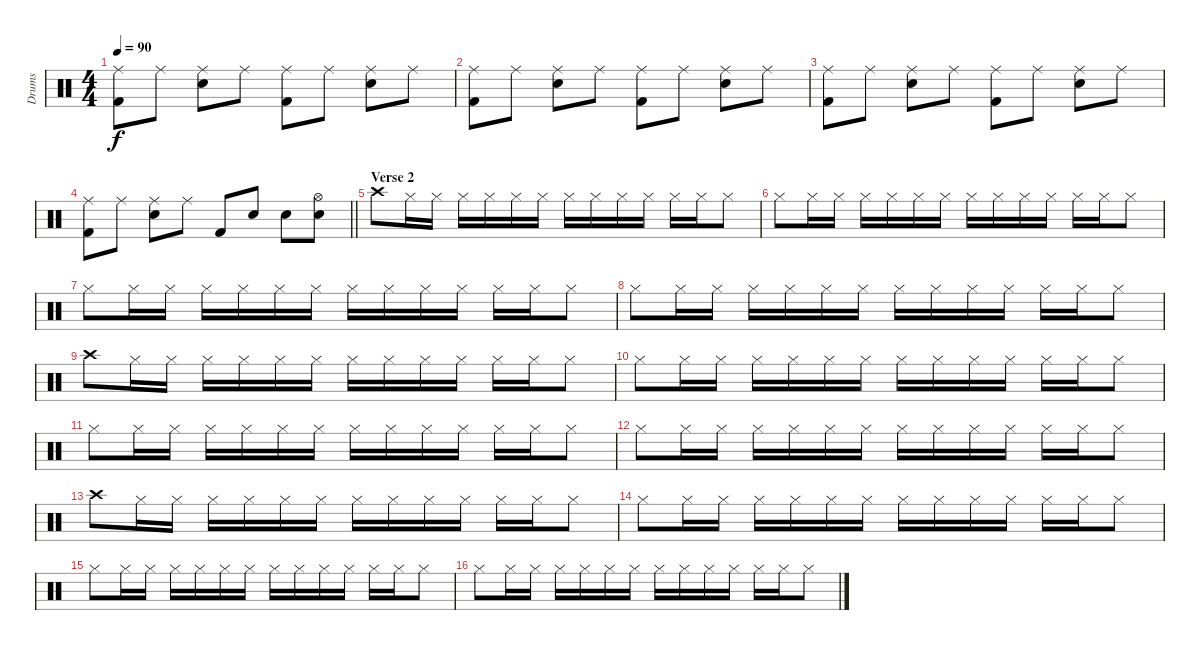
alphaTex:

\track ("Drums" "Drums") {instrument percussion}
\staff {score}
\articulation defaults
\ts (4 4)
\tempo 90
\clef neutral
\ks c
("Ride (middle)" "Kick (hit) 2").8{dy f} "Ride (middle)".8 ("Ride (middle)" "Snare (hit) 2").8 "Ride (middle)".8 ("Ride (middle)" "Kick (hit) 2").8 "Ride (middle)".8 ("Ride (middle)" "Snare (hit) 2").8 "Ride (middle)".8 |
("Ride (middle)" "Kick (hit) 2").8 "Ride (middle)".8 ("Ride (middle)" "Snare (hit) 2").8 "Ride (middle)".8 ("Ride (middle)" "Kick (hit) 2").8 "Ride (middle)".8 ("Ride (middle)" "Snare (hit) 2").8 "Ride (middle)".8 |
("Ride (middle)" "Kick (hit) 2").8 "Ride (middle)".8 ("Ride (middle)" "Snare (hit) 2").8 "Ride (middle)".8 ("Ride (middle)" "Kick (hit) 2").8 "Ride (middle)".8 ("Ride (middle)" "Snare (hit) 2").8 "Ride (middle)".8 |
\barLineRight lightlight
("Ride (middle)" "Kick (hit) 2").8 "Ride (middle)".8 ("Ride (middle)" "Snare (hit) 2").8 "Ride (middle)".8 "Kick (hit) 2".8 "Snare (hit) 2".8 "Snare (hit) 2".8 ("Hi-Hat (open)" "Snare (hit) 2").8 |
\section ("" "Verse 2")
"Crash high (hit)".8 "Hi-Hat (closed)".16 "Hi-Hat (closed)".16 "Hi-Hat (closed)".16 "Hi-Hat (closed)".16 "Hi-Hat (closed)".16 "Hi-Hat (closed)".16 "Hi-Hat (closed)".16 "Hi-Hat (closed)".16 "Hi-Hat (closed)".16 "Hi-Hat (closed)".16 "Hi-Hat (closed)".16 "Hi-Hat (closed)".16 "Hi-Hat (closed)".8 |
"Hi-Hat (closed)".8 "Hi-Hat (closed)".16 "Hi-Hat (closed)".16 "Hi-Hat (closed)".16 "Hi-Hat (closed)".16 "Hi-Hat (closed)".16 "Hi-Hat (closed)".16 "Hi-Hat (closed)".16 "Hi-Hat (closed)".16 "Hi-Hat (closed)".16 "Hi-Hat (closed)".16 "Hi-Hat (closed)".16 "Hi-Hat (closed)".16 "Hi-Hat (closed)".8 |
"Hi-Hat (closed)".8 "Hi-Hat (closed)".16 "Hi-Hat (closed)".16 "Hi-Hat (closed)".16 "Hi-Hat (closed)".16 "Hi-Hat (closed)".16 "Hi-Hat (closed)".16 "Hi-Hat (closed)".16 "Hi-Hat (closed)".16 "Hi-Hat (closed)".16 "Hi-Hat (closed)".16 "Hi-Hat (closed)".16 "Hi-Hat (closed)".16 "Hi-Hat (closed)".8 |
"Hi-Hat (closed)".8 "Hi-Hat (closed)".16 "Hi-Hat (closed)".16 "Hi-Hat (closed)".16 "Hi-Hat (closed)".16 "Hi-Hat (closed)".16 "Hi-Hat (closed)".16 "Hi-Hat (closed)".16 "Hi-Hat (closed)".16 "Hi-Hat (closed)".16 "Hi-Hat (closed)".16 "Hi-Hat (closed)".16 "Hi-Hat (closed)".16 "Hi-Hat (closed)".8 |
"Crash high (hit)".8 "Hi-Hat (closed)".16 "Hi-Hat (closed)".16 "Hi-Hat (closed)".16 "Hi-Hat (closed)".16 "Hi-Hat (closed)".16 "Hi-Hat (closed)".16 "Hi-Hat (closed)".16 "Hi-Hat (closed)".16 "Hi-Hat (closed)".16 "Hi-Hat (closed)".16 "Hi-Hat (closed)".16 "Hi-Hat (closed)".16 "Hi-Hat (closed)".8 |
"Hi-Hat (closed)".8 "Hi-Hat (closed)".16 "Hi-Hat (closed)".16 "Hi-Hat (closed)".16 "Hi-Hat (closed)".16 "Hi-Hat (closed)".16 "Hi-Hat (closed)".16 "Hi-Hat (closed)".16 "Hi-Hat (closed)".16 "Hi-Hat (closed)".16 "Hi-Hat (closed)".16 "Hi-Hat (closed)".16 "Hi-Hat (closed)".16 "Hi-Hat (closed)".8 |
"Hi-Hat (closed)".8 "Hi-Hat (closed)".16 "Hi-Hat (closed)".16 "Hi-Hat (closed)".16 "Hi-Hat (closed)".16 "Hi-Hat (closed)".16 "Hi-Hat (closed)".16 "Hi-Hat (closed)".16 "Hi-Hat (closed)".16 "Hi-Hat (closed)".16 "Hi-Hat (closed)".16 "Hi-Hat (closed)".16 "Hi-Hat (closed)".16 "Hi-Hat (closed)".8 |
"Hi-Hat (closed)".8 "Hi-Hat (closed)".16 "Hi-Hat (closed)".16 "Hi-Hat (closed)".16 "Hi-Hat (closed)".16 "Hi-Hat (closed)".16 "Hi-Hat (closed)".16 "Hi-Hat (closed)".16 "Hi-Hat (closed)".16 "Hi-Hat (closed)".16 "Hi-Hat (closed)".16 "Hi-Hat (closed)".16 "Hi-Hat (closed)".16 "Hi-Hat (closed)".8 |
"Crash high (hit)".8 "Hi-Hat (closed)".16 "Hi-Hat (closed)".16 "Hi-Hat (closed)".16 "Hi-Hat (closed)".16 "Hi-Hat (closed)".16 "Hi-Hat (closed)".16 "Hi-Hat (closed)".16 "Hi-Hat (closed)".16 "Hi-Hat (closed)".16 "Hi-Hat (closed)".16 "Hi-Hat (closed)".16 "Hi-Hat (closed)".16 "Hi-Hat (closed)".8 |
"Hi-Hat (closed)".8 "Hi-Hat (closed)".16 "Hi-Hat (closed)".16 "Hi-Hat (closed)".16 "Hi-Hat (closed)".16 "Hi-Hat (closed)".16 "Hi-Hat (closed)".16 "Hi-Hat (closed)".16 "Hi-Hat (closed)".16 "Hi-Hat (closed)".16 "Hi-Hat (closed)".16 "Hi-Hat (closed)".16 "Hi-Hat (closed)".16 "Hi-Hat (closed)".8 |
"Hi-Hat (closed)".8 "Hi-Hat (closed)".16 "Hi-Hat (closed)".16 "Hi-Hat (closed)".16 "Hi-Hat (closed)".16 "Hi-Hat (closed)".16 "Hi-Hat (closed)".16 "Hi-Hat (closed)".16 "Hi-Hat (closed)".16 "Hi-Hat (closed)".16 "Hi-Hat (closed)".16 "Hi-Hat (closed)".16 "Hi-Hat (closed)".16 "Hi-Hat (closed)".8 |
"Hi-Hat (closed)".8 "Hi-Hat (closed)".16 "Hi-Hat (closed)".16 "Hi-Hat (closed)".16 "Hi-Hat (closed)".16 "Hi-Hat (closed)".16 "Hi-Hat (closed)".16 "Hi-Hat (closed)".16 "Hi-Hat (closed)".16 "Hi-Hat (closed)".16 "Hi-Hat (closed)".16 "Hi-Hat (closed)".16 "Hi-Hat (closed)".16 "Hi-Hat (closed)".8
